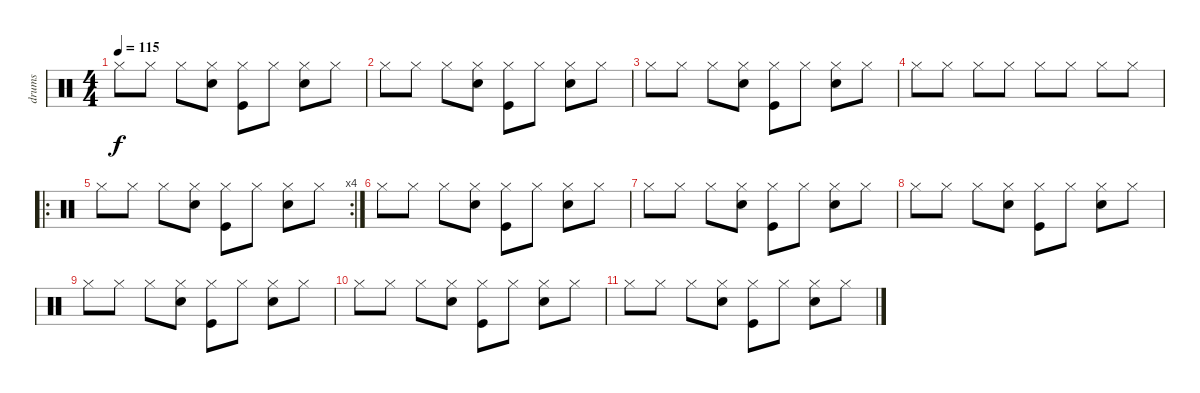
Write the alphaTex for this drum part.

\track ("drums" "drums") {instrument percussion}
\staff {score}
\articulation defaults
\ts (4 4)
\tempo 115
\clef neutral
\ks c "Hi-Hat (closed)".8{dy f} "Hi-Hat (closed)".8 "Hi-Hat (closed)".8
("Hi-Hat (closed)" "Snare (hit) 2").8 ("Hi-Hat (closed)" "Kick (hit)").8 "Hi-Hat (closed)".8 ("Hi-Hat (closed)" "Snare (hit) 2").8 "Hi-Hat (closed)".8 |
"Hi-Hat (closed)".8 "Hi-Hat (closed)".8 "Hi-Hat (closed)".8 ("Hi-Hat (closed)" "Snare (hit) 2").8 ("Hi-Hat (closed)" "Kick (hit)").8 "Hi-Hat (closed)".8 ("Hi-Hat (closed)" "Snare (hit) 2").8 "Hi-Hat (closed)".8 |
"Hi-Hat (closed)".8 "Hi-Hat (closed)".8 "Hi-Hat (closed)".8 ("Hi-Hat (closed)" "Snare (hit) 2").8 ("Hi-Hat (closed)" "Kick (hit)").8 "Hi-Hat (closed)".8 ("Hi-Hat (closed)" "Snare (hit) 2").8 "Hi-Hat (closed)".8 |
"Hi-Hat (closed)".8 "Hi-Hat (closed)".8 "Hi-Hat (closed)".8 "Hi-Hat (closed)".8 "Hi-Hat (closed)".8 "Hi-Hat (closed)".8 "Hi-Hat (closed)".8 "Hi-Hat (closed)".8 |
\ro
\rc 4 "Hi-Hat (closed)".8 "Hi-Hat (closed)".8 "Hi-Hat (closed)".8
("Hi-Hat (closed)" "Snare (hit) 2").8 ("Hi-Hat (closed)" "Kick (hit)").8 "Hi-Hat (closed)".8 ("Hi-Hat (closed)" "Snare (hit) 2").8 "Hi-Hat (closed)".8 |
"Hi-Hat (closed)".8 "Hi-Hat (closed)".8 "Hi-Hat (closed)".8 ("Hi-Hat (closed)" "Snare (hit) 2").8 ("Hi-Hat (closed)" "Kick (hit)").8 "Hi-Hat (closed)".8 ("Hi-Hat (closed)" "Snare (hit) 2").8 "Hi-Hat (closed)".8 |
"Hi-Hat (closed)".8 "Hi-Hat (closed)".8 "Hi-Hat (closed)".8 ("Hi-Hat (closed)" "Snare (hit) 2").8 ("Hi-Hat (closed)" "Kick (hit)").8 "Hi-Hat (closed)".8 ("Hi-Hat (closed)" "Snare (hit) 2").8 "Hi-Hat (closed)".8 |
"Hi-Hat (closed)".8 "Hi-Hat (closed)".8 "Hi-Hat (closed)".8 ("Hi-Hat (closed)" "Snare (hit) 2").8 ("Hi-Hat (closed)" "Kick (hit)").8 "Hi-Hat (closed)".8 ("Hi-Hat (closed)" "Snare (hit) 2").8 "Hi-Hat (closed)".8 |
"Hi-Hat (closed)".8{volume 0} "Hi-Hat (closed)".8 "Hi-Hat (closed)".8 ("Hi-Hat (closed)" "Snare (hit) 2").8 ("Hi-Hat (closed)" "Kick (hit)").8 "Hi-Hat (closed)".8 ("Hi-Hat (closed)" "Snare (hit) 2").8 "Hi-Hat (closed)".8 |
"Hi-Hat (closed)".8 "Hi-Hat (closed)".8 "Hi-Hat (closed)".8 ("Hi-Hat (closed)" "Snare (hit) 2").8 ("Hi-Hat (closed)" "Kick (hit)").8 "Hi-Hat (closed)".8 ("Hi-Hat (closed)" "Snare (hit) 2").8 "Hi-Hat (closed)".8 |
"Hi-Hat (closed)".8 "Hi-Hat (closed)".8 "Hi-Hat (closed)".8 ("Hi-Hat (closed)" "Snare (hit) 2").8 ("Hi-Hat (closed)" "Kick (hit)").8 "Hi-Hat (closed)".8 ("Hi-Hat (closed)" "Snare (hit) 2").8 "Hi-Hat (closed)".8
